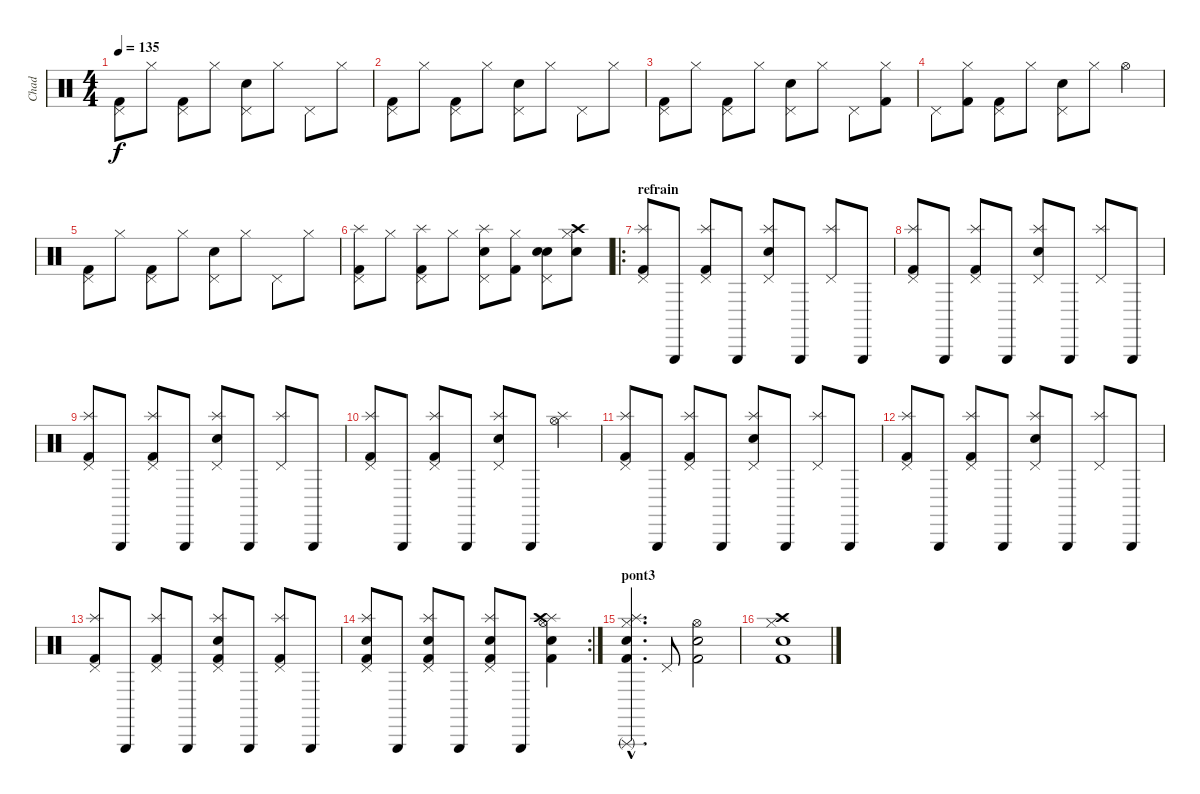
\track ("Chad" "Chad") {instrument percussion}
\staff {score}
\articulation defaults
\ts (4 4)
\tempo 135
\clef neutral
\ks c
("Pedal Hi-Hat (hit)" "Kick (hit) 2").8{dy f} "Hi-Hat (closed)".8 ("Pedal Hi-Hat (hit)" "Kick (hit) 2").8 "Hi-Hat (closed)".8 ("Pedal Hi-Hat (hit)" "Electric Snare (hit)").8 "Hi-Hat (closed)".8 "Pedal Hi-Hat (hit)".8 "Hi-Hat (closed)".8 |
("Pedal Hi-Hat (hit)" "Kick (hit) 2").8 "Hi-Hat (closed)".8 ("Pedal Hi-Hat (hit)" "Kick (hit) 2").8 "Hi-Hat (closed)".8 ("Pedal Hi-Hat (hit)" "Electric Snare (hit)").8 "Hi-Hat (closed)".8 "Pedal Hi-Hat (hit)".8 "Hi-Hat (closed)".8 |
("Pedal Hi-Hat (hit)" "Kick (hit) 2").8 "Hi-Hat (closed)".8 ("Pedal Hi-Hat (hit)" "Kick (hit) 2").8 "Hi-Hat (closed)".8 ("Pedal Hi-Hat (hit)" "Electric Snare (hit)").8 "Hi-Hat (closed)".8 "Pedal Hi-Hat (hit)".8 ("Hi-Hat (closed)" "Kick (hit) 2").8 |
"Pedal Hi-Hat (hit)".8 ("Hi-Hat (closed)" "Kick (hit) 2").8 ("Pedal Hi-Hat (hit)" "Kick (hit) 2").8 "Hi-Hat (closed)".8 ("Pedal Hi-Hat (hit)" "Electric Snare (hit)").8 "Hi-Hat (closed)".8 "Hi-Hat (open)".4 |
("Pedal Hi-Hat (hit)" "Kick (hit) 2").8 "Hi-Hat (closed)".8 ("Pedal Hi-Hat (hit)" "Kick (hit) 2").8 "Hi-Hat (closed)".8 ("Pedal Hi-Hat (hit)" "Electric Snare (hit)").8 "Hi-Hat (closed)".8 "Pedal Hi-Hat (hit)".8 "Hi-Hat (closed)".8 |
("Splash (hit)" "Pedal Hi-Hat (hit)" "Kick (hit) 2").8 "Hi-Hat (closed)".8 ("Splash (hit)" "Pedal Hi-Hat (hit)" "Kick (hit) 2").8 "Hi-Hat (closed)".8 ("Splash (hit)" "Pedal Hi-Hat (hit)" "Electric Snare (hit)").8 ("Hi-Hat (closed)" "Kick (hit) 2").8 ("Pedal Hi-Hat (hit)" "Electric Snare (hit)" "Snare (hit) 2").8 ("Crash high (hit)" "Hi-Hat (closed)" "Snare (hit) 2").8 |
\ro
\section ("" "refrain")
("Splash (hit)" "Pedal Hi-Hat (hit)" "Kick (hit) 2").8 "Triangle (hit)".8 ("Splash (hit)" "Pedal Hi-Hat (hit)" "Kick (hit) 2").8 "Triangle (hit)".8 ("Splash (hit)" "Pedal Hi-Hat (hit)" "Electric Snare (hit)").8 "Triangle (hit)".8 ("Splash (hit)" "Pedal Hi-Hat (hit)").8 "Triangle (hit)".8 |
("Splash (hit)" "Pedal Hi-Hat (hit)" "Kick (hit) 2").8 "Triangle (hit)".8 ("Splash (hit)" "Pedal Hi-Hat (hit)" "Kick (hit) 2").8 "Triangle (hit)".8 ("Splash (hit)" "Pedal Hi-Hat (hit)" "Electric Snare (hit)").8 "Triangle (hit)".8 ("Splash (hit)" "Pedal Hi-Hat (hit)").8 "Triangle (hit)".8 |
("Splash (hit)" "Pedal Hi-Hat (hit)" "Kick (hit) 2").8 "Triangle (hit)".8 ("Splash (hit)" "Pedal Hi-Hat (hit)" "Kick (hit) 2").8 "Triangle (hit)".8 ("Splash (hit)" "Pedal Hi-Hat (hit)" "Electric Snare (hit)").8 "Triangle (hit)".8 ("Splash (hit)" "Pedal Hi-Hat (hit)").8 "Triangle (hit)".8 |
("Splash (hit)" "Pedal Hi-Hat (hit)" "Kick (hit) 2").8 "Triangle (hit)".8 ("Splash (hit)" "Pedal Hi-Hat (hit)" "Kick (hit) 2").8 "Triangle (hit)".8 ("Splash (hit)" "Pedal Hi-Hat (hit)" "Electric Snare (hit)").8 "Triangle (hit)".8 ("Splash (hit)" "Hi-Hat (open)").4 |
("Splash (hit)" "Pedal Hi-Hat (hit)" "Kick (hit) 2").8 "Triangle (hit)".8 ("Splash (hit)" "Pedal Hi-Hat (hit)" "Kick (hit) 2").8 "Triangle (hit)".8 ("Splash (hit)" "Pedal Hi-Hat (hit)" "Electric Snare (hit)").8 "Triangle (hit)".8 ("Splash (hit)" "Pedal Hi-Hat (hit)").8 "Triangle (hit)".8 |
("Splash (hit)" "Pedal Hi-Hat (hit)" "Kick (hit) 2").8 "Triangle (hit)".8 ("Splash (hit)" "Pedal Hi-Hat (hit)" "Kick (hit) 2").8 "Triangle (hit)".8 ("Splash (hit)" "Pedal Hi-Hat (hit)" "Electric Snare (hit)").8 "Triangle (hit)".8 ("Splash (hit)" "Pedal Hi-Hat (hit)").8 "Triangle (hit)".8 |
("Splash (hit)" "Pedal Hi-Hat (hit)" "Kick (hit) 2").8 "Triangle (hit)".8 ("Splash (hit)" "Pedal Hi-Hat (hit)" "Kick (hit) 2").8 "Triangle (hit)".8 ("Splash (hit)" "Pedal Hi-Hat (hit)" "Electric Snare (hit)" "Kick (hit) 2").8 "Triangle (hit)".8 ("Splash (hit)" "Pedal Hi-Hat (hit)" "Kick (hit) 2").8 "Triangle (hit)".8 |
\rc 2
("Splash (hit)" "Pedal Hi-Hat (hit)" "Electric Snare (hit)" "Kick (hit) 2").8 "Triangle (hit)".8 ("Splash (hit)" "Pedal Hi-Hat (hit)" "Electric Snare (hit)" "Kick (hit) 2").8 "Triangle (hit)".8 ("Splash (hit)" "Pedal Hi-Hat (hit)" "Electric Snare (hit)" "Kick (hit) 2").8 "Triangle (hit)".8 ("Splash (hit)" "Hi-Hat (open)" "Crash high (hit)" "Electric Snare (hit)" "Kick (hit) 2").4 |
\section ("" "pont3")
("Triangle (rnute)"{hac} "Splash (hit)"{hac} "Snare (hit) 2"{hac} "Hi-Hat (closed)"{hac} "Kick (hit) 2"{hac}).4{d} "Pedal Hi-Hat (hit)".8 ("Hi-Hat (open)" "Electric Snare (hit)" "Kick (hit) 2").2 |
("Crash high (hit)" "Hi-Hat (closed)" "Electric Snare (hit)" "Kick (hit) 2").1
